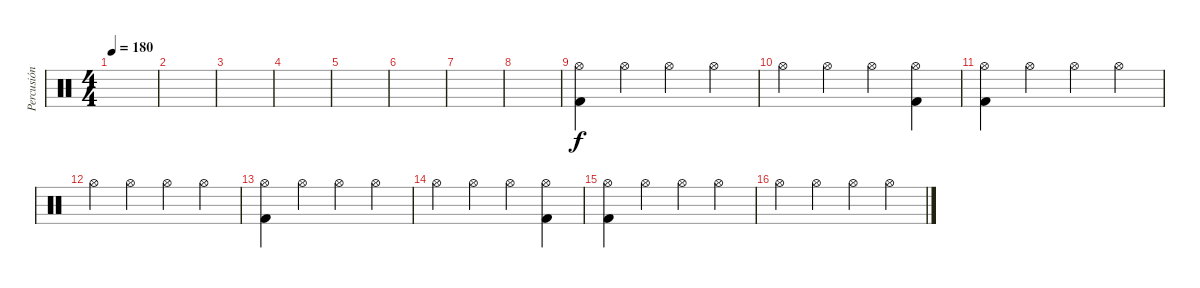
\track ("Percusión" "Percusión") {instrument percussion}
\staff {score}
\articulation defaults
\ts (4 4)
\tempo 180
\clef neutral
\ks c
|
|
|
|
|
|
|
|
("Hi-Hat (open)" "Kick (hit) 2").4 "Hi-Hat (open)".4 "Hi-Hat (open)".4 "Hi-Hat (open)".4 |
"Hi-Hat (open)".4 "Hi-Hat (open)".4 "Hi-Hat (open)".4 ("Hi-Hat (open)" "Kick (hit) 2").4 |
("Hi-Hat (open)" "Kick (hit) 2").4 "Hi-Hat (open)".4 "Hi-Hat (open)".4 "Hi-Hat (open)".4 |
"Hi-Hat (open)".4 "Hi-Hat (open)".4 "Hi-Hat (open)".4 "Hi-Hat (open)".4 |
("Hi-Hat (open)" "Kick (hit) 2").4 "Hi-Hat (open)".4 "Hi-Hat (open)".4 "Hi-Hat (open)".4 |
"Hi-Hat (open)".4 "Hi-Hat (open)".4 "Hi-Hat (open)".4 ("Hi-Hat (open)" "Kick (hit) 2").4 |
("Hi-Hat (open)" "Kick (hit) 2").4 "Hi-Hat (open)".4 "Hi-Hat (open)".4 "Hi-Hat (open)".4 |
"Hi-Hat (open)".4 "Hi-Hat (open)".4 "Hi-Hat (open)".4 "Hi-Hat (open)".4
